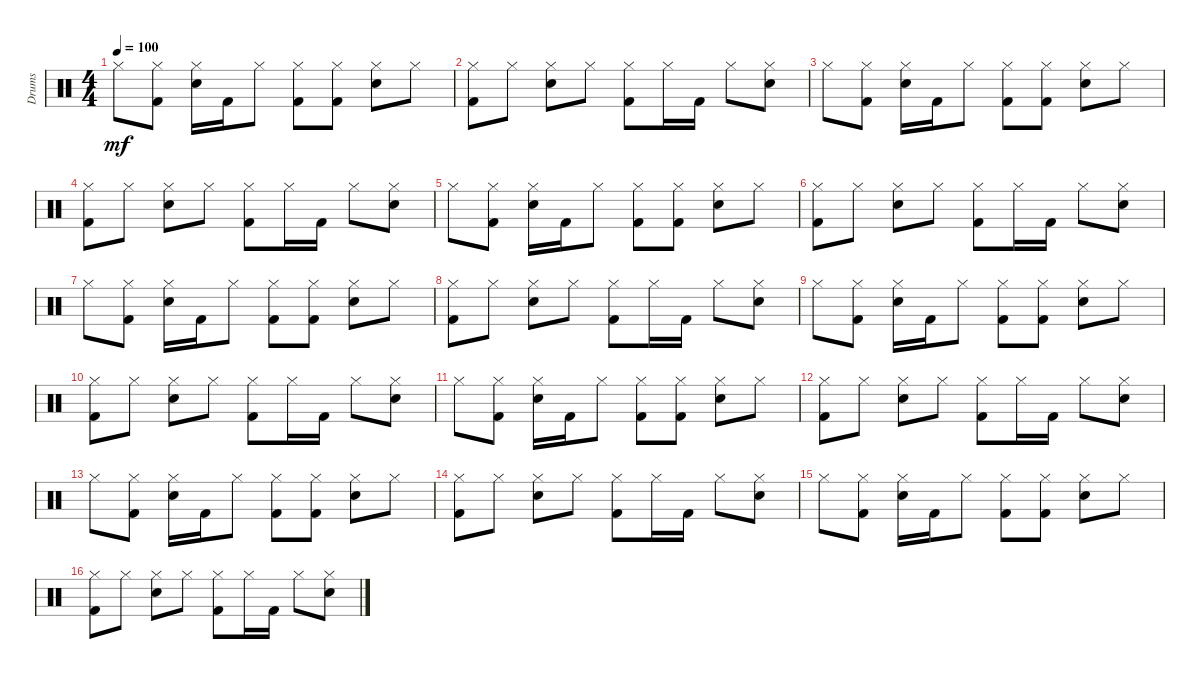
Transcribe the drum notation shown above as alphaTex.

\defaultSystemsLayout 4
\bracketExtendMode groupsimilarinstruments
\otherSystemsTrackNameOrientation horizontal
\track ("Prakarsh" "Drums") {instrument percussion}
\staff {score}
\articulation defaults
\ts (4 4)
\tempo 100
\clef neutral
\ks c "Hi-Hat (closed)".8{dy mf beam Down}
("Hi-Hat (closed)" "Kick (hit) 2").8{beam Down} ("Hi-Hat (closed)" "Snare (hit) 2").16{beam Down} "Kick (hit) 2".16{beam Down} "Hi-Hat (closed)".8{beam Down} ("Hi-Hat (closed)" "Kick (hit) 2").8{beam Down} ("Hi-Hat (closed)" "Kick (hit) 2").8{beam Down} ("Hi-Hat (closed)" "Snare (hit) 2").8{beam Down} "Hi-Hat (closed)".8{beam Down} |
("Hi-Hat (closed)" "Kick (hit) 2").8{beam Down} "Hi-Hat (closed)".8{beam Down} ("Hi-Hat (closed)" "Snare (hit) 2").8{beam Down} "Hi-Hat (closed)".8{beam Down} ("Hi-Hat (closed)" "Kick (hit) 2").8{beam Down} "Hi-Hat (closed)".16{beam Down} "Kick (hit) 2".16{beam Down} "Hi-Hat (closed)".8{beam Down} ("Hi-Hat (closed)" "Snare (hit) 2").8{beam Down} |
"Hi-Hat (closed)".8{beam Down} ("Hi-Hat (closed)" "Kick (hit) 2").8{beam Down} ("Hi-Hat (closed)" "Snare (hit) 2").16{beam Down} "Kick (hit) 2".16{beam Down} "Hi-Hat (closed)".8{beam Down} ("Hi-Hat (closed)" "Kick (hit) 2").8{beam Down} ("Hi-Hat (closed)" "Kick (hit) 2").8{beam Down} ("Hi-Hat (closed)" "Snare (hit) 2").8{beam Down} "Hi-Hat (closed)".8{beam Down} |
("Hi-Hat (closed)" "Kick (hit) 2").8{beam Down} "Hi-Hat (closed)".8{beam Down} ("Hi-Hat (closed)" "Snare (hit) 2").8{beam Down} "Hi-Hat (closed)".8{beam Down} ("Hi-Hat (closed)" "Kick (hit) 2").8{beam Down} "Hi-Hat (closed)".16{beam Down} "Kick (hit) 2".16{beam Down} "Hi-Hat (closed)".8{beam Down} ("Hi-Hat (closed)" "Snare (hit) 2").8{beam Down} |
"Hi-Hat (closed)".8{beam Down} ("Hi-Hat (closed)" "Kick (hit) 2").8{beam Down} ("Hi-Hat (closed)" "Snare (hit) 2").16{beam Down} "Kick (hit) 2".16{beam Down} "Hi-Hat (closed)".8{beam Down} ("Hi-Hat (closed)" "Kick (hit) 2").8{beam Down} ("Hi-Hat (closed)" "Kick (hit) 2").8{beam Down} ("Hi-Hat (closed)" "Snare (hit) 2").8{beam Down} "Hi-Hat (closed)".8{beam Down} |
("Hi-Hat (closed)" "Kick (hit) 2").8{beam Down} "Hi-Hat (closed)".8{beam Down} ("Hi-Hat (closed)" "Snare (hit) 2").8{beam Down} "Hi-Hat (closed)".8{beam Down} ("Hi-Hat (closed)" "Kick (hit) 2").8{beam Down} "Hi-Hat (closed)".16{beam Down} "Kick (hit) 2".16{beam Down} "Hi-Hat (closed)".8{beam Down} ("Hi-Hat (closed)" "Snare (hit) 2").8{beam Down} |
"Hi-Hat (closed)".8{beam Down} ("Hi-Hat (closed)" "Kick (hit) 2").8{beam Down} ("Hi-Hat (closed)" "Snare (hit) 2").16{beam Down} "Kick (hit) 2".16{beam Down} "Hi-Hat (closed)".8{beam Down} ("Hi-Hat (closed)" "Kick (hit) 2").8{beam Down} ("Hi-Hat (closed)" "Kick (hit) 2").8{beam Down} ("Hi-Hat (closed)" "Snare (hit) 2").8{beam Down} "Hi-Hat (closed)".8{beam Down} |
("Hi-Hat (closed)" "Kick (hit) 2").8{beam Down} "Hi-Hat (closed)".8{beam Down} ("Hi-Hat (closed)" "Snare (hit) 2").8{beam Down} "Hi-Hat (closed)".8{beam Down} ("Hi-Hat (closed)" "Kick (hit) 2").8{beam Down} "Hi-Hat (closed)".16{beam Down} "Kick (hit) 2".16{beam Down} "Hi-Hat (closed)".8{beam Down} ("Hi-Hat (closed)" "Snare (hit) 2").8{beam Down} |
"Hi-Hat (closed)".8{beam Down} ("Hi-Hat (closed)" "Kick (hit) 2").8{beam Down} ("Hi-Hat (closed)" "Snare (hit) 2").16{beam Down} "Kick (hit) 2".16{beam Down} "Hi-Hat (closed)".8{beam Down} ("Hi-Hat (closed)" "Kick (hit) 2").8{beam Down} ("Hi-Hat (closed)" "Kick (hit) 2").8{beam Down} ("Hi-Hat (closed)" "Snare (hit) 2").8{beam Down} "Hi-Hat (closed)".8{beam Down} |
("Hi-Hat (closed)" "Kick (hit) 2").8{beam Down} "Hi-Hat (closed)".8{beam Down} ("Hi-Hat (closed)" "Snare (hit) 2").8{beam Down} "Hi-Hat (closed)".8{beam Down} ("Hi-Hat (closed)" "Kick (hit) 2").8{beam Down} "Hi-Hat (closed)".16{beam Down} "Kick (hit) 2".16{beam Down} "Hi-Hat (closed)".8{beam Down} ("Hi-Hat (closed)" "Snare (hit) 2").8{beam Down} |
"Hi-Hat (closed)".8{beam Down} ("Hi-Hat (closed)" "Kick (hit) 2").8{beam Down} ("Hi-Hat (closed)" "Snare (hit) 2").16{beam Down} "Kick (hit) 2".16{beam Down} "Hi-Hat (closed)".8{beam Down} ("Hi-Hat (closed)" "Kick (hit) 2").8{beam Down} ("Hi-Hat (closed)" "Kick (hit) 2").8{beam Down} ("Hi-Hat (closed)" "Snare (hit) 2").8{beam Down} "Hi-Hat (closed)".8{beam Down} |
("Hi-Hat (closed)" "Kick (hit) 2").8{beam Down} "Hi-Hat (closed)".8{beam Down} ("Hi-Hat (closed)" "Snare (hit) 2").8{beam Down} "Hi-Hat (closed)".8{beam Down} ("Hi-Hat (closed)" "Kick (hit) 2").8{beam Down} "Hi-Hat (closed)".16{beam Down} "Kick (hit) 2".16{beam Down} "Hi-Hat (closed)".8{beam Down} ("Hi-Hat (closed)" "Snare (hit) 2").8{beam Down} |
"Hi-Hat (closed)".8{beam Down} ("Hi-Hat (closed)" "Kick (hit) 2").8{beam Down} ("Hi-Hat (closed)" "Snare (hit) 2").16{beam Down} "Kick (hit) 2".16{beam Down} "Hi-Hat (closed)".8{beam Down} ("Hi-Hat (closed)" "Kick (hit) 2").8{beam Down} ("Hi-Hat (closed)" "Kick (hit) 2").8{beam Down} ("Hi-Hat (closed)" "Snare (hit) 2").8{beam Down} "Hi-Hat (closed)".8{beam Down} |
("Hi-Hat (closed)" "Kick (hit) 2").8{beam Down} "Hi-Hat (closed)".8{beam Down} ("Hi-Hat (closed)" "Snare (hit) 2").8{beam Down} "Hi-Hat (closed)".8{beam Down} ("Hi-Hat (closed)" "Kick (hit) 2").8{beam Down} "Hi-Hat (closed)".16{beam Down} "Kick (hit) 2".16{beam Down} "Hi-Hat (closed)".8{beam Down} ("Hi-Hat (closed)" "Snare (hit) 2").8{beam Down} |
"Hi-Hat (closed)".8{beam Down} ("Hi-Hat (closed)" "Kick (hit) 2").8{beam Down} ("Hi-Hat (closed)" "Snare (hit) 2").16{beam Down} "Kick (hit) 2".16{beam Down} "Hi-Hat (closed)".8{beam Down} ("Hi-Hat (closed)" "Kick (hit) 2").8{beam Down} ("Hi-Hat (closed)" "Kick (hit) 2").8{beam Down} ("Hi-Hat (closed)" "Snare (hit) 2").8{beam Down} "Hi-Hat (closed)".8{beam Down} |
("Hi-Hat (closed)" "Kick (hit) 2").8{beam Down} "Hi-Hat (closed)".8{beam Down} ("Hi-Hat (closed)" "Snare (hit) 2").8{beam Down} "Hi-Hat (closed)".8{beam Down} ("Hi-Hat (closed)" "Kick (hit) 2").8{beam Down} "Hi-Hat (closed)".16{beam Down} "Kick (hit) 2".16{beam Down} "Hi-Hat (closed)".8{beam Down} ("Hi-Hat (closed)" "Snare (hit) 2").8{beam Down}
